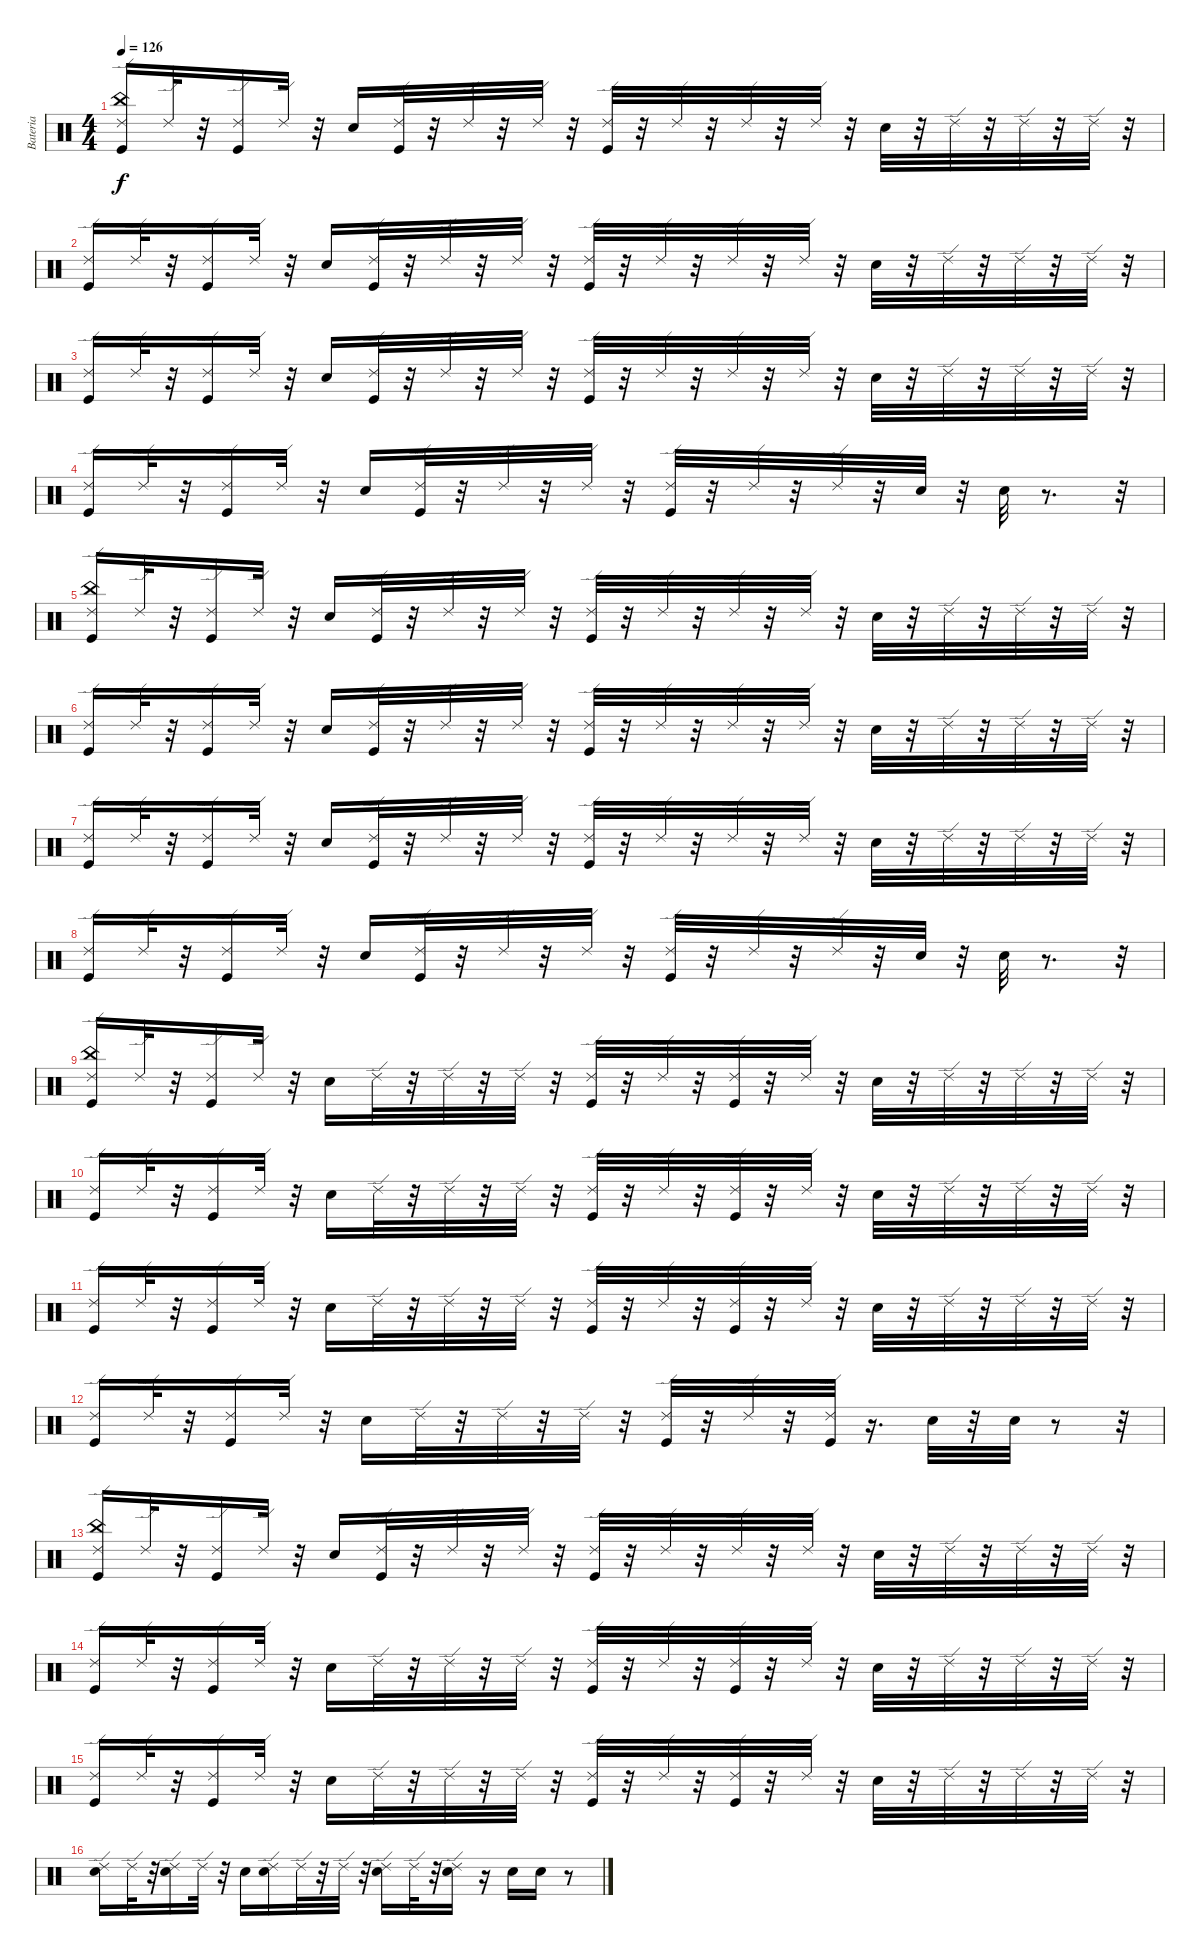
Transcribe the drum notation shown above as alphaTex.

\track ("Bateria" "Bateria") {instrument percussion}
\staff {score}
\articulation defaults
\ts (4 4)
\tempo 126
\clef neutral
\ks c
("Ride (edge) 2" "China (hit)" "Kick (hit)").16{dy f} "Ride (edge) 2".32 r.32 ("Ride (edge) 2" "Kick (hit)").16 "Ride (edge) 2".32 r.32 "Snare (hit) 2".16 ("Kick (hit)" "Ride (edge) 2").32 r.32 "Ride (edge) 2".32 r.32 "Ride (edge) 2".32 r.32 ("Kick (hit)" "Ride (edge) 2").32 r.32 "Ride (edge) 2".32 r.32 "Ride (edge) 2".32 r.32 "Ride (edge) 2".32 r.32 "Snare (hit) 2".32 r.32 "Ride (edge) 2".32 r.32 "Ride (edge) 2".32 r.32 "Ride (edge) 2".32 r.32 |
("Ride (edge) 2" "Kick (hit)").16 "Ride (edge) 2".32 r.32 ("Kick (hit)" "Ride (edge) 2").16 "Ride (edge) 2".32 r.32 "Snare (hit) 2".16 ("Ride (edge) 2" "Kick (hit)").32 r.32 "Ride (edge) 2".32 r.32 "Ride (edge) 2".32 r.32 ("Kick (hit)" "Ride (edge) 2").32 r.32 "Ride (edge) 2".32 r.32 "Ride (edge) 2".32 r.32 "Ride (edge) 2".32 r.32 "Snare (hit) 2".32 r.32 "Ride (edge) 2".32 r.32 "Ride (edge) 2".32 r.32 "Ride (edge) 2".32 r.32 |
("Kick (hit)" "Ride (edge) 2").16 "Ride (edge) 2".32 r.32 ("Kick (hit)" "Ride (edge) 2").16 "Ride (edge) 2".32 r.32 "Snare (hit) 2".16 ("Ride (edge) 2" "Kick (hit)").32 r.32 "Ride (edge) 2".32 r.32 "Ride (edge) 2".32 r.32 ("Ride (edge) 2" "Kick (hit)").32 r.32 "Ride (edge) 2".32 r.32 "Ride (edge) 2".32 r.32 "Ride (edge) 2".32 r.32 "Snare (hit) 2".32 r.32 "Ride (edge) 2".32 r.32 "Ride (edge) 2".32 r.32 "Ride (edge) 2".32 r.32 |
("Kick (hit)" "Ride (edge) 2").16 "Ride (edge) 2".32 r.32 ("Kick (hit)" "Ride (edge) 2").16 "Ride (edge) 2".32 r.32 "Snare (hit) 2".16 ("Kick (hit)" "Ride (edge) 2").32 r.32 "Ride (edge) 2".32 r.32 "Ride (edge) 2".32 r.32 ("Kick (hit)" "Ride (edge) 2").32 r.32 "Ride (edge) 2".32 r.32 "Ride (edge) 2".32 r.32 "Snare (hit) 2".32 r.32 "Snare (hit) 2".32 r.8{d} r.32 |
("Ride (edge) 2" "China (hit)" "Kick (hit)").16 "Ride (edge) 2".32 r.32 ("Ride (edge) 2" "Kick (hit)").16 "Ride (edge) 2".32 r.32 "Snare (hit) 2".16 ("Kick (hit)" "Ride (edge) 2").32 r.32 "Ride (edge) 2".32 r.32 "Ride (edge) 2".32 r.32 ("Kick (hit)" "Ride (edge) 2").32 r.32 "Ride (edge) 2".32 r.32 "Ride (edge) 2".32 r.32 "Ride (edge) 2".32 r.32 "Snare (hit) 2".32 r.32 "Ride (edge) 2".32 r.32 "Ride (edge) 2".32 r.32 "Ride (edge) 2".32 r.32 |
("Ride (edge) 2" "Kick (hit)").16 "Ride (edge) 2".32 r.32 ("Kick (hit)" "Ride (edge) 2").16 "Ride (edge) 2".32 r.32 "Snare (hit) 2".16 ("Ride (edge) 2" "Kick (hit)").32 r.32 "Ride (edge) 2".32 r.32 "Ride (edge) 2".32 r.32 ("Kick (hit)" "Ride (edge) 2").32 r.32 "Ride (edge) 2".32 r.32 "Ride (edge) 2".32 r.32 "Ride (edge) 2".32 r.32 "Snare (hit) 2".32 r.32 "Ride (edge) 2".32 r.32 "Ride (edge) 2".32 r.32 "Ride (edge) 2".32 r.32 |
("Kick (hit)" "Ride (edge) 2").16 "Ride (edge) 2".32 r.32 ("Kick (hit)" "Ride (edge) 2").16 "Ride (edge) 2".32 r.32 "Snare (hit) 2".16 ("Ride (edge) 2" "Kick (hit)").32 r.32 "Ride (edge) 2".32 r.32 "Ride (edge) 2".32 r.32 ("Ride (edge) 2" "Kick (hit)").32 r.32 "Ride (edge) 2".32 r.32 "Ride (edge) 2".32 r.32 "Ride (edge) 2".32 r.32 "Snare (hit) 2".32 r.32 "Ride (edge) 2".32 r.32 "Ride (edge) 2".32 r.32 "Ride (edge) 2".32 r.32 |
("Kick (hit)" "Ride (edge) 2").16 "Ride (edge) 2".32 r.32 ("Kick (hit)" "Ride (edge) 2").16 "Ride (edge) 2".32 r.32 "Snare (hit) 2".16 ("Kick (hit)" "Ride (edge) 2").32 r.32 "Ride (edge) 2".32 r.32 "Ride (edge) 2".32 r.32 ("Kick (hit)" "Ride (edge) 2").32 r.32 "Ride (edge) 2".32 r.32 "Ride (edge) 2".32 r.32 "Snare (hit) 2".32 r.32 "Snare (hit) 2".32 r.8{d} r.32 |
("Ride (edge) 2" "China (hit)" "Kick (hit)").16 "Ride (edge) 2".32 r.32 ("Ride (edge) 2" "Kick (hit)").16 "Ride (edge) 2".32 r.32 "Snare (hit) 2".16 "Ride (edge) 2".32 r.32 "Ride (edge) 2".32 r.32 "Ride (edge) 2".32 r.32 ("Kick (hit)" "Ride (edge) 2").32 r.32 "Ride (edge) 2".32 r.32 ("Kick (hit)" "Ride (edge) 2").32 r.32 "Ride (edge) 2".32 r.32 "Snare (hit) 2".32 r.32 "Ride (edge) 2".32 r.32 "Ride (edge) 2".32 r.32 "Ride (edge) 2".32 r.32 |
("Ride (edge) 2" "Kick (hit)").16 "Ride (edge) 2".32 r.32 ("Kick (hit)" "Ride (edge) 2").16 "Ride (edge) 2".32 r.32 "Snare (hit) 2".16 "Ride (edge) 2".32 r.32 "Ride (edge) 2".32 r.32 "Ride (edge) 2".32 r.32 ("Kick (hit)" "Ride (edge) 2").32 r.32 "Ride (edge) 2".32 r.32 ("Kick (hit)" "Ride (edge) 2").32 r.32 "Ride (edge) 2".32 r.32 "Snare (hit) 2".32 r.32 "Ride (edge) 2".32 r.32 "Ride (edge) 2".32 r.32 "Ride (edge) 2".32 r.32 |
("Kick (hit)" "Ride (edge) 2").16 "Ride (edge) 2".32 r.32 ("Kick (hit)" "Ride (edge) 2").16 "Ride (edge) 2".32 r.32 "Snare (hit) 2".16 "Ride (edge) 2".32 r.32 "Ride (edge) 2".32 r.32 "Ride (edge) 2".32 r.32 ("Ride (edge) 2" "Kick (hit)").32 r.32 "Ride (edge) 2".32 r.32 ("Kick (hit)" "Ride (edge) 2").32 r.32 "Ride (edge) 2".32 r.32 "Snare (hit) 2".32 r.32 "Ride (edge) 2".32 r.32 "Ride (edge) 2".32 r.32 "Ride (edge) 2".32 r.32 |
("Kick (hit)" "Ride (edge) 2").16 "Ride (edge) 2".32 r.32 ("Kick (hit)" "Ride (edge) 2").16 "Ride (edge) 2".32 r.32 "Snare (hit) 2".16 "Ride (edge) 2".32 r.32 "Ride (edge) 2".32 r.32 "Ride (edge) 2".32 r.32 ("Kick (hit)" "Ride (edge) 2").32 r.32 "Ride (edge) 2".32 r.32 ("Kick (hit)" "Ride (edge) 2").32 r.16{d} "Snare (hit) 2".32 r.32 "Snare (hit) 2".32 r.8 r.32 |
("Ride (edge) 2" "China (hit)" "Kick (hit)").16 "Ride (edge) 2".32 r.32 ("Ride (edge) 2" "Kick (hit)").16 "Ride (edge) 2".32 r.32 "Snare (hit) 2".16 ("Kick (hit)" "Ride (edge) 2").32 r.32 "Ride (edge) 2".32 r.32 "Ride (edge) 2".32 r.32 ("Kick (hit)" "Ride (edge) 2").32 r.32 "Ride (edge) 2".32 r.32 "Ride (edge) 2".32 r.32 "Ride (edge) 2".32 r.32 "Snare (hit) 2".32 r.32 "Ride (edge) 2".32 r.32 "Ride (edge) 2".32 r.32 "Ride (edge) 2".32 r.32 |
("Ride (edge) 2" "Kick (hit)").16 "Ride (edge) 2".32 r.32 ("Kick (hit)" "Ride (edge) 2").16 "Ride (edge) 2".32 r.32 "Snare (hit) 2".16 "Ride (edge) 2".32 r.32 "Ride (edge) 2".32 r.32 "Ride (edge) 2".32 r.32 ("Kick (hit)" "Ride (edge) 2").32 r.32 "Ride (edge) 2".32 r.32 ("Kick (hit)" "Ride (edge) 2").32 r.32 "Ride (edge) 2".32 r.32 "Snare (hit) 2".32 r.32 "Ride (edge) 2".32 r.32 "Ride (edge) 2".32 r.32 "Ride (edge) 2".32 r.32 |
("Kick (hit)" "Ride (edge) 2").16 "Ride (edge) 2".32 r.32 ("Kick (hit)" "Ride (edge) 2").16 "Ride (edge) 2".32 r.32 "Snare (hit) 2".16 "Ride (edge) 2".32 r.32 "Ride (edge) 2".32 r.32 "Ride (edge) 2".32 r.32 ("Ride (edge) 2" "Kick (hit)").32 r.32 "Ride (edge) 2".32 r.32 ("Kick (hit)" "Ride (edge) 2").32 r.32 "Ride (edge) 2".32 r.32 "Snare (hit) 2".32 r.32 "Ride (edge) 2".32 r.32 "Ride (edge) 2".32 r.32 "Ride (edge) 2".32 r.32 |
("Snare (hit) 2" "Ride (edge) 2").16 "Ride (edge) 2".32 r.32 ("Snare (hit) 2" "Ride (edge) 2").16 "Ride (edge) 2".32 r.32 "Snare (hit) 2".16 ("Snare (hit) 2" "Ride (edge) 2").16 "Ride (edge) 2".32 r.32 "Ride (edge) 2".32 r.32 ("Ride (edge) 2" "Snare (hit) 2").16 "Ride (edge) 2".32 r.32 ("Ride (edge) 2" "Snare (hit) 2").16 r.16 "Snare (hit) 2".16 "Snare (hit) 2".16 r.8
